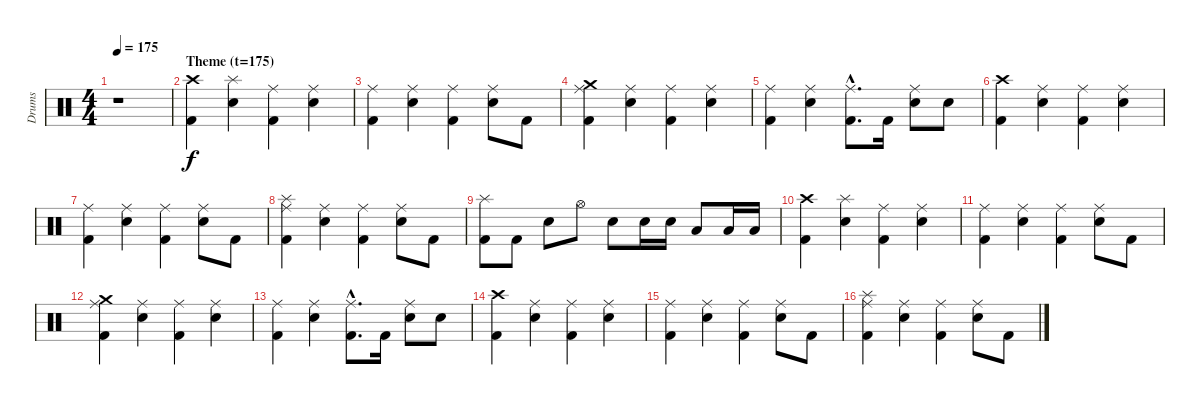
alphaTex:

\track ("Drums" "Drums") {instrument percussion}
\staff {score}
\articulation defaults
\ts (4 4)
\tempo 175
\clef neutral
\ks c
r.1{dy f} |
\section ("" "Theme (t=175)")
("Crash high (hit)" "Kick (hit) 2").4 ("Splash (hit)" "Snare (hit) 2").4 ("Ride (middle)" "Kick (hit) 2").4 ("Ride (middle)" "Snare (hit) 2").4 |
("Ride (middle)" "Kick (hit) 2").4 ("Ride (middle)" "Snare (hit) 2").4 ("Ride (middle)" "Kick (hit) 2").4 ("Ride (middle)" "Snare (hit) 2").8 "Kick (hit) 2".8 |
("Crash medium (hit)" "Ride (middle)" "Kick (hit) 2").4 ("Ride (middle)" "Snare (hit) 2").4 ("Ride (middle)" "Kick (hit) 2").4 ("Ride (middle)" "Snare (hit) 2").4 |
("Ride (middle)" "Kick (hit) 2").4 ("Ride (middle)" "Snare (hit) 2").4 ("Ride (middle)"{hac} "Kick (hit) 2"{hac}).8{d} "Kick (hit) 2".16 ("Ride (middle)" "Snare (hit) 2").8 "Snare (hit) 2".8 |
("Crash high (hit)" "Kick (hit) 2").4 ("Ride (middle)" "Snare (hit) 2").4 ("Ride (middle)" "Kick (hit) 2").4 ("Ride (middle)" "Snare (hit) 2").4 |
("Ride (middle)" "Kick (hit) 2").4 ("Ride (middle)" "Snare (hit) 2").4 ("Ride (middle)" "Kick (hit) 2").4 ("Ride (middle)" "Snare (hit) 2").8 "Kick (hit) 2".8 |
("Splash (hit)" "Ride (middle)" "Kick (hit) 2").4 ("Ride (middle)" "Snare (hit) 2").4 ("Ride (middle)" "Kick (hit) 2").4 ("Ride (middle)" "Snare (hit) 2").8 "Kick (hit) 2".8 |
("Splash (hit)" "Kick (hit) 2").8 "Kick (hit) 2".8 "Snare (hit) 2".8 "Hi-Hat (open)".8 "Snare (hit) 2".8 "Snare (hit) 2".16 "Snare (hit) 2".16 "Low Tom (hit)".8 "Low Tom (hit)".16 "Low Tom (hit)".16 |
("Crash high (hit)" "Kick (hit) 2").4 ("Splash (hit)" "Snare (hit) 2").4 ("Ride (middle)" "Kick (hit) 2").4 ("Ride (middle)" "Snare (hit) 2").4 |
("Ride (middle)" "Kick (hit) 2").4 ("Ride (middle)" "Snare (hit) 2").4 ("Ride (middle)" "Kick (hit) 2").4 ("Ride (middle)" "Snare (hit) 2").8 "Kick (hit) 2".8 |
("Crash medium (hit)" "Ride (middle)" "Kick (hit) 2").4 ("Ride (middle)" "Snare (hit) 2").4 ("Ride (middle)" "Kick (hit) 2").4 ("Ride (middle)" "Snare (hit) 2").4 |
("Ride (middle)" "Kick (hit) 2").4 ("Ride (middle)" "Snare (hit) 2").4 ("Ride (middle)"{hac} "Kick (hit) 2"{hac}).8{d} "Kick (hit) 2".16 ("Ride (middle)" "Snare (hit) 2").8 "Snare (hit) 2".8 |
("Crash high (hit)" "Kick (hit) 2").4 ("Ride (middle)" "Snare (hit) 2").4 ("Ride (middle)" "Kick (hit) 2").4 ("Ride (middle)" "Snare (hit) 2").4 |
("Ride (middle)" "Kick (hit) 2").4 ("Ride (middle)" "Snare (hit) 2").4 ("Ride (middle)" "Kick (hit) 2").4 ("Ride (middle)" "Snare (hit) 2").8 "Kick (hit) 2".8 |
("Splash (hit)" "Ride (middle)" "Kick (hit) 2").4 ("Ride (middle)" "Snare (hit) 2").4 ("Ride (middle)" "Kick (hit) 2").4 ("Ride (middle)" "Snare (hit) 2").8 "Kick (hit) 2".8
